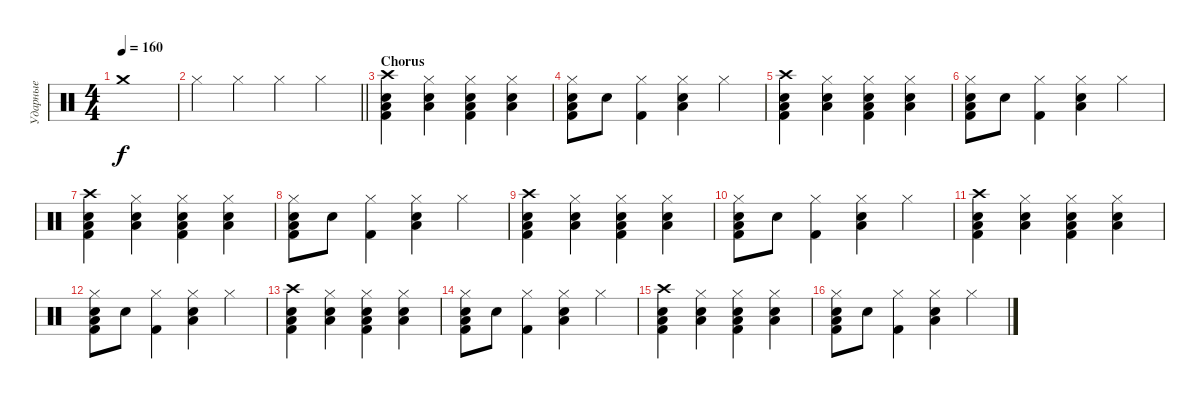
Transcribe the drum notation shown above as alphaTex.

\track ("Ударные" "Ударные") {instrument percussion}
\staff {score}
\articulation defaults
\ts (4 4)
\tempo 160
\clef neutral
\ks c "Crash medium (hit)".1{dy f}
|
\barLineRight lightlight "Hi-Hat (closed)".4 "Hi-Hat (closed)".4 "Hi-Hat (closed)".4 "Hi-Hat (closed)".4
|
\section ("" "Chorus")
("Crash high (hit)" "Kick (hit) 2" "Snare (hit) 2" "Low Floor Tom (hit)").4 ("Hi-Hat (closed)" "Snare (hit) 2" "Low Floor Tom (hit)").4 ("Hi-Hat (closed)" "Kick (hit) 2" "Snare (hit) 2" "Low Floor Tom (hit)").4 ("Hi-Hat (closed)" "Snare (hit) 2" "Low Floor Tom (hit)").4 |
("Hi-Hat (closed)" "Kick (hit) 2" "Snare (hit) 2" "Low Floor Tom (hit)").8 "Snare (hit) 2".8 ("Hi-Hat (closed)" "Kick (hit) 2").4 ("Hi-Hat (closed)" "Snare (hit) 2" "Low Floor Tom (hit)").4 "Hi-Hat (closed)".4 |
("Crash high (hit)" "Kick (hit) 2" "Snare (hit) 2" "Low Floor Tom (hit)").4 ("Hi-Hat (closed)" "Snare (hit) 2" "Low Floor Tom (hit)").4 ("Hi-Hat (closed)" "Kick (hit) 2" "Snare (hit) 2" "Low Floor Tom (hit)").4 ("Hi-Hat (closed)" "Snare (hit) 2" "Low Floor Tom (hit)").4 |
("Hi-Hat (closed)" "Kick (hit) 2" "Snare (hit) 2" "Low Floor Tom (hit)").8 "Snare (hit) 2".8 ("Hi-Hat (closed)" "Kick (hit) 2").4 ("Hi-Hat (closed)" "Snare (hit) 2" "Low Floor Tom (hit)").4 "Hi-Hat (closed)".4 |
("Crash high (hit)" "Kick (hit) 2" "Snare (hit) 2" "Low Floor Tom (hit)").4 ("Hi-Hat (closed)" "Snare (hit) 2" "Low Floor Tom (hit)").4 ("Hi-Hat (closed)" "Kick (hit) 2" "Snare (hit) 2" "Low Floor Tom (hit)").4 ("Hi-Hat (closed)" "Snare (hit) 2" "Low Floor Tom (hit)").4 |
("Hi-Hat (closed)" "Kick (hit) 2" "Snare (hit) 2" "Low Floor Tom (hit)").8 "Snare (hit) 2".8 ("Hi-Hat (closed)" "Kick (hit) 2").4 ("Hi-Hat (closed)" "Snare (hit) 2" "Low Floor Tom (hit)").4 "Hi-Hat (closed)".4 |
("Crash high (hit)" "Kick (hit) 2" "Snare (hit) 2" "Low Floor Tom (hit)").4 ("Hi-Hat (closed)" "Snare (hit) 2" "Low Floor Tom (hit)").4 ("Hi-Hat (closed)" "Kick (hit) 2" "Snare (hit) 2" "Low Floor Tom (hit)").4 ("Hi-Hat (closed)" "Snare (hit) 2" "Low Floor Tom (hit)").4 |
("Hi-Hat (closed)" "Kick (hit) 2" "Snare (hit) 2" "Low Floor Tom (hit)").8 "Snare (hit) 2".8 ("Hi-Hat (closed)" "Kick (hit) 2").4 ("Hi-Hat (closed)" "Snare (hit) 2" "Low Floor Tom (hit)").4 "Hi-Hat (closed)".4 |
("Crash high (hit)" "Kick (hit) 2" "Snare (hit) 2" "Low Floor Tom (hit)").4 ("Hi-Hat (closed)" "Snare (hit) 2" "Low Floor Tom (hit)").4 ("Hi-Hat (closed)" "Kick (hit) 2" "Snare (hit) 2" "Low Floor Tom (hit)").4 ("Hi-Hat (closed)" "Snare (hit) 2" "Low Floor Tom (hit)").4 |
("Hi-Hat (closed)" "Kick (hit) 2" "Snare (hit) 2" "Low Floor Tom (hit)").8 "Snare (hit) 2".8 ("Hi-Hat (closed)" "Kick (hit) 2").4 ("Hi-Hat (closed)" "Snare (hit) 2" "Low Floor Tom (hit)").4 "Hi-Hat (closed)".4 |
("Crash high (hit)" "Kick (hit) 2" "Snare (hit) 2" "Low Floor Tom (hit)").4 ("Hi-Hat (closed)" "Snare (hit) 2" "Low Floor Tom (hit)").4 ("Hi-Hat (closed)" "Kick (hit) 2" "Snare (hit) 2" "Low Floor Tom (hit)").4 ("Hi-Hat (closed)" "Snare (hit) 2" "Low Floor Tom (hit)").4 |
("Hi-Hat (closed)" "Kick (hit) 2" "Snare (hit) 2" "Low Floor Tom (hit)").8 "Snare (hit) 2".8 ("Hi-Hat (closed)" "Kick (hit) 2").4 ("Hi-Hat (closed)" "Snare (hit) 2" "Low Floor Tom (hit)").4 "Hi-Hat (closed)".4 |
("Crash high (hit)" "Kick (hit) 2" "Snare (hit) 2" "Low Floor Tom (hit)").4 ("Hi-Hat (closed)" "Snare (hit) 2" "Low Floor Tom (hit)").4 ("Hi-Hat (closed)" "Kick (hit) 2" "Snare (hit) 2" "Low Floor Tom (hit)").4 ("Hi-Hat (closed)" "Snare (hit) 2" "Low Floor Tom (hit)").4 |
("Hi-Hat (closed)" "Kick (hit) 2" "Snare (hit) 2" "Low Floor Tom (hit)").8 "Snare (hit) 2".8 ("Hi-Hat (closed)" "Kick (hit) 2").4 ("Hi-Hat (closed)" "Snare (hit) 2" "Low Floor Tom (hit)").4 "Hi-Hat (closed)".4
